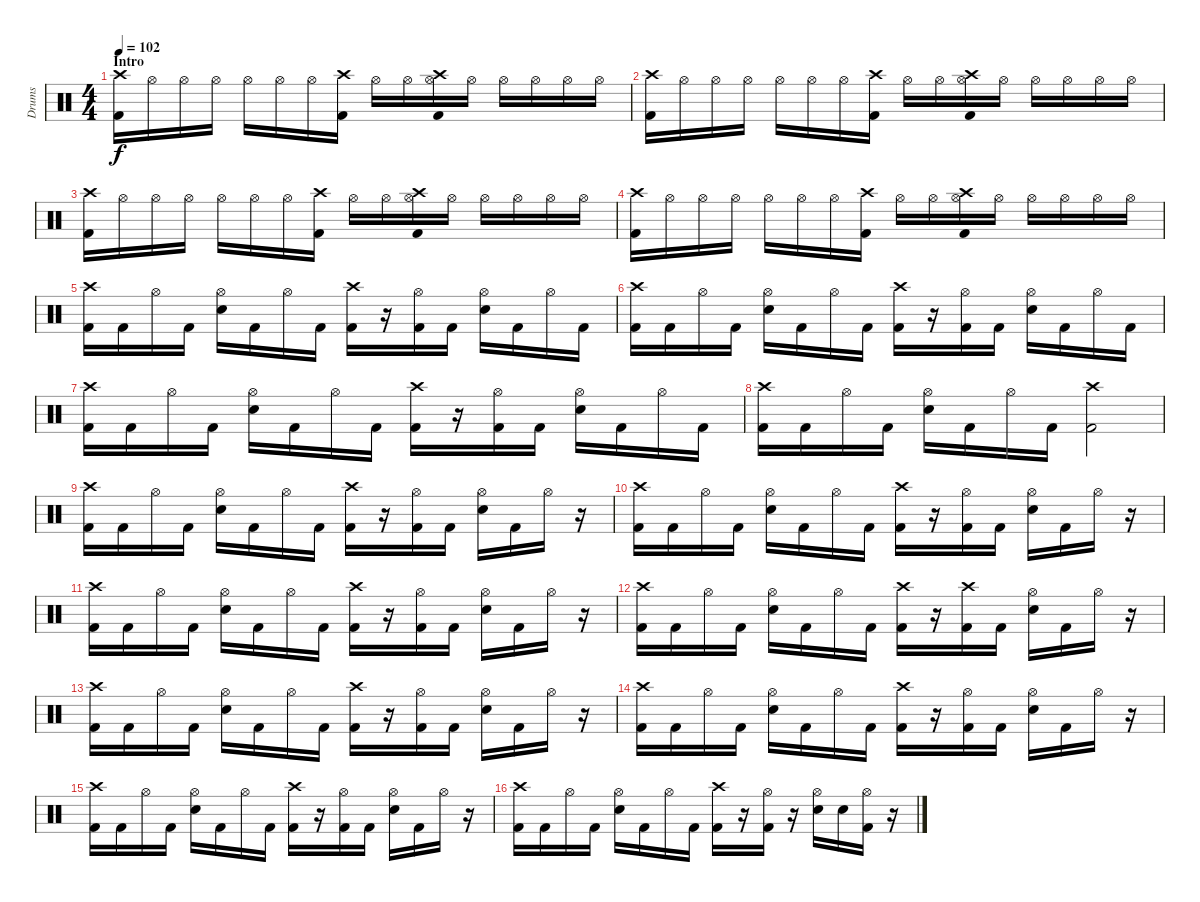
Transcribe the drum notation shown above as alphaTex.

\track ("Drums" "Drums") {instrument percussion}
\staff {score}
\articulation defaults
\ts (4 4)
\section ("" "Intro")
\tempo 102
\clef neutral
\ks c
("Crash high (hit)" "Kick (hit) 2").16{dy f} "Hi-Hat (open)".16 "Hi-Hat (open)".16 "Hi-Hat (open)".16 "Hi-Hat (open)".16 "Hi-Hat (open)".16 "Hi-Hat (open)".16 ("Crash high (hit)" "Kick (hit) 2").16 "Hi-Hat (open)".16 "Hi-Hat (open)".16 ("Crash high (hit)" "Hi-Hat (open)" "Kick (hit) 2").16 "Hi-Hat (open)".16 "Hi-Hat (open)".16 "Hi-Hat (open)".16 "Hi-Hat (open)".16 "Hi-Hat (open)".16 |
("Crash high (hit)" "Kick (hit) 2").16 "Hi-Hat (open)".16 "Hi-Hat (open)".16 "Hi-Hat (open)".16 "Hi-Hat (open)".16 "Hi-Hat (open)".16 "Hi-Hat (open)".16 ("Crash high (hit)" "Kick (hit) 2").16 "Hi-Hat (open)".16 "Hi-Hat (open)".16 ("Crash high (hit)" "Hi-Hat (open)" "Kick (hit) 2").16 "Hi-Hat (open)".16 "Hi-Hat (open)".16 "Hi-Hat (open)".16 "Hi-Hat (open)".16 "Hi-Hat (open)".16 |
("Crash high (hit)" "Kick (hit) 2").16 "Hi-Hat (open)".16 "Hi-Hat (open)".16 "Hi-Hat (open)".16 "Hi-Hat (open)".16 "Hi-Hat (open)".16 "Hi-Hat (open)".16 ("Crash high (hit)" "Kick (hit) 2").16 "Hi-Hat (open)".16 "Hi-Hat (open)".16 ("Crash high (hit)" "Hi-Hat (open)" "Kick (hit) 2").16 "Hi-Hat (open)".16 "Hi-Hat (open)".16 "Hi-Hat (open)".16 "Hi-Hat (open)".16 "Hi-Hat (open)".16 |
("Crash high (hit)" "Kick (hit) 2").16 "Hi-Hat (open)".16 "Hi-Hat (open)".16 "Hi-Hat (open)".16 "Hi-Hat (open)".16 "Hi-Hat (open)".16 "Hi-Hat (open)".16 ("Crash high (hit)" "Kick (hit) 2").16 "Hi-Hat (open)".16 "Hi-Hat (open)".16 ("Crash high (hit)" "Hi-Hat (open)" "Kick (hit) 2").16 "Hi-Hat (open)".16 "Hi-Hat (open)".16 "Hi-Hat (open)".16 "Hi-Hat (open)".16 "Hi-Hat (open)".16 |
("Crash high (hit)" "Kick (hit) 2").16 "Kick (hit) 2".16 "Hi-Hat (open)".16 "Kick (hit) 2".16 ("Hi-Hat (open)" "Snare (hit) 2").16 "Kick (hit) 2".16 "Hi-Hat (open)".16 "Kick (hit) 2".16 ("Crash high (hit)" "Kick (hit) 2").16 r.16 ("Hi-Hat (open)" "Kick (hit) 2").16 "Kick (hit) 2".16 ("Hi-Hat (open)" "Snare (hit) 2").16 "Kick (hit) 2".16 "Hi-Hat (open)".16 "Kick (hit) 2".16 |
("Crash high (hit)" "Kick (hit) 2").16 "Kick (hit) 2".16 "Hi-Hat (open)".16 "Kick (hit) 2".16 ("Hi-Hat (open)" "Snare (hit) 2").16 "Kick (hit) 2".16 "Hi-Hat (open)".16 "Kick (hit) 2".16 ("Crash high (hit)" "Kick (hit) 2").16 r.16 ("Hi-Hat (open)" "Kick (hit) 2").16 "Kick (hit) 2".16 ("Hi-Hat (open)" "Snare (hit) 2").16 "Kick (hit) 2".16 "Hi-Hat (open)".16 "Kick (hit) 2".16 |
("Crash high (hit)" "Kick (hit) 2").16 "Kick (hit) 2".16 "Hi-Hat (open)".16 "Kick (hit) 2".16 ("Hi-Hat (open)" "Snare (hit) 2").16 "Kick (hit) 2".16 "Hi-Hat (open)".16 "Kick (hit) 2".16 ("Crash high (hit)" "Kick (hit) 2").16 r.16 ("Hi-Hat (open)" "Kick (hit) 2").16 "Kick (hit) 2".16 ("Hi-Hat (open)" "Snare (hit) 2").16 "Kick (hit) 2".16 "Hi-Hat (open)".16 "Kick (hit) 2".16 |
("Crash high (hit)" "Kick (hit) 2").16 "Kick (hit) 2".16 "Hi-Hat (open)".16 "Kick (hit) 2".16 ("Hi-Hat (open)" "Snare (hit) 2").16 "Kick (hit) 2".16 "Hi-Hat (open)".16 "Kick (hit) 2".16 ("Crash high (hit)" "Kick (hit) 2").2 |
("Crash high (hit)" "Kick (hit) 2").16 "Kick (hit) 2".16 "Hi-Hat (open)".16 "Kick (hit) 2".16 ("Hi-Hat (open)" "Snare (hit) 2").16 "Kick (hit) 2".16 "Hi-Hat (open)".16 "Kick (hit) 2".16 ("Crash high (hit)" "Kick (hit) 2").16 r.16 ("Hi-Hat (open)" "Kick (hit) 2").16 "Kick (hit) 2".16 ("Hi-Hat (open)" "Snare (hit) 2").16 "Kick (hit) 2".16 "Hi-Hat (open)".16 r.16 |
("Crash high (hit)" "Kick (hit) 2").16 "Kick (hit) 2".16 "Hi-Hat (open)".16 "Kick (hit) 2".16 ("Hi-Hat (open)" "Snare (hit) 2").16 "Kick (hit) 2".16 "Hi-Hat (open)".16 "Kick (hit) 2".16 ("Crash high (hit)" "Kick (hit) 2").16 r.16 ("Hi-Hat (open)" "Kick (hit) 2").16 "Kick (hit) 2".16 ("Hi-Hat (open)" "Snare (hit) 2").16 "Kick (hit) 2".16 "Hi-Hat (open)".16 r.16 |
("Crash high (hit)" "Kick (hit) 2").16 "Kick (hit) 2".16 "Hi-Hat (open)".16 "Kick (hit) 2".16 ("Hi-Hat (open)" "Snare (hit) 2").16 "Kick (hit) 2".16 "Hi-Hat (open)".16 "Kick (hit) 2".16 ("Crash high (hit)" "Kick (hit) 2").16 r.16 ("Hi-Hat (open)" "Kick (hit) 2").16 "Kick (hit) 2".16 ("Hi-Hat (open)" "Snare (hit) 2").16 "Kick (hit) 2".16 "Hi-Hat (open)".16 r.16 |
("Crash high (hit)" "Kick (hit) 2").16 "Kick (hit) 2".16 "Hi-Hat (open)".16 "Kick (hit) 2".16 ("Hi-Hat (open)" "Snare (hit) 2").16 "Kick (hit) 2".16 "Hi-Hat (open)".16 "Kick (hit) 2".16 ("Crash high (hit)" "Kick (hit) 2").16 r.16 ("Crash high (hit)" "Kick (hit) 2").16 "Kick (hit) 2".16 ("Hi-Hat (open)" "Snare (hit) 2").16 "Kick (hit) 2".16 "Hi-Hat (open)".16 r.16 |
("Crash high (hit)" "Kick (hit) 2").16 "Kick (hit) 2".16 "Hi-Hat (open)".16 "Kick (hit) 2".16 ("Hi-Hat (open)" "Snare (hit) 2").16 "Kick (hit) 2".16 "Hi-Hat (open)".16 "Kick (hit) 2".16 ("Crash high (hit)" "Kick (hit) 2").16 r.16 ("Hi-Hat (open)" "Kick (hit) 2").16 "Kick (hit) 2".16 ("Hi-Hat (open)" "Snare (hit) 2").16 "Kick (hit) 2".16 "Hi-Hat (open)".16 r.16 |
("Crash high (hit)" "Kick (hit) 2").16 "Kick (hit) 2".16 "Hi-Hat (open)".16 "Kick (hit) 2".16 ("Hi-Hat (open)" "Snare (hit) 2").16 "Kick (hit) 2".16 "Hi-Hat (open)".16 "Kick (hit) 2".16 ("Crash high (hit)" "Kick (hit) 2").16 r.16 ("Hi-Hat (open)" "Kick (hit) 2").16 "Kick (hit) 2".16 ("Hi-Hat (open)" "Snare (hit) 2").16 "Kick (hit) 2".16 "Hi-Hat (open)".16 r.16 |
("Crash high (hit)" "Kick (hit) 2").16 "Kick (hit) 2".16 "Hi-Hat (open)".16 "Kick (hit) 2".16 ("Hi-Hat (open)" "Snare (hit) 2").16 "Kick (hit) 2".16 "Hi-Hat (open)".16 "Kick (hit) 2".16 ("Crash high (hit)" "Kick (hit) 2").16 r.16 ("Hi-Hat (open)" "Kick (hit) 2").16 "Kick (hit) 2".16 ("Hi-Hat (open)" "Snare (hit) 2").16 "Kick (hit) 2".16 "Hi-Hat (open)".16 r.16 |
("Crash high (hit)" "Kick (hit) 2").16 "Kick (hit) 2".16 "Hi-Hat (open)".16 "Kick (hit) 2".16 ("Hi-Hat (open)" "Snare (hit) 2").16 "Kick (hit) 2".16 "Hi-Hat (open)".16 "Kick (hit) 2".16 ("Crash high (hit)" "Kick (hit) 2").16 r.16 ("Hi-Hat (open)" "Kick (hit) 2").16 r.16 ("Hi-Hat (open)" "Snare (hit) 2").16 "Snare (hit) 2".16 ("Hi-Hat (open)" "Kick (hit) 2").16 r.16
